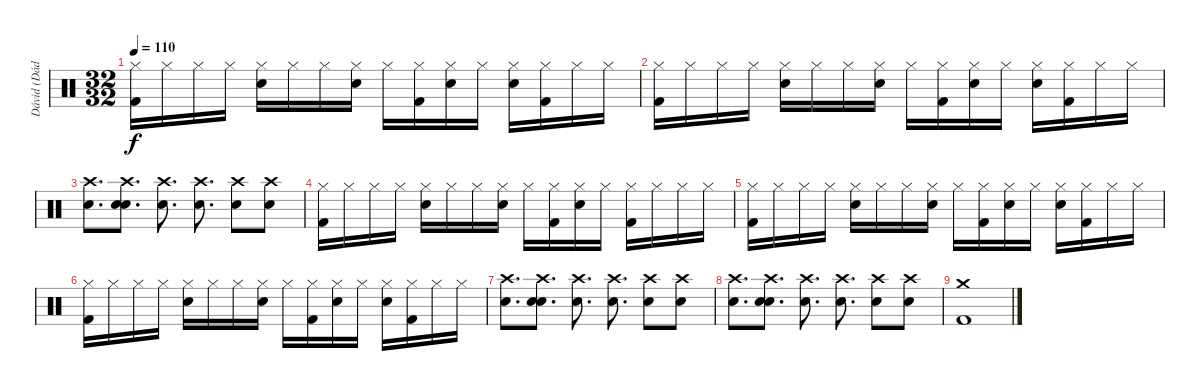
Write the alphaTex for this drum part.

\track ("Dávid (Dádi)" "Dávid (Dád") {instrument percussion}
\staff {score}
\articulation defaults
\ts (32 32)
\tempo 110
\clef neutral
\ks c
("Hi-Hat (closed)" "Kick (hit) 2").16{dy f} "Hi-Hat (closed)".16 "Hi-Hat (closed)".16 "Hi-Hat (closed)".16 ("Hi-Hat (closed)" "Electric Snare (hit)").16 "Hi-Hat (closed)".16 "Hi-Hat (closed)".16 ("Hi-Hat (closed)" "Electric Snare (hit)").16 "Hi-Hat (closed)".16 ("Hi-Hat (closed)" "Kick (hit) 2").16 ("Hi-Hat (closed)" "Electric Snare (hit)").16 "Hi-Hat (closed)".16 ("Hi-Hat (closed)" "Electric Snare (hit)").16 ("Hi-Hat (closed)" "Kick (hit) 2").16 "Hi-Hat (closed)".16 "Hi-Hat (closed)".16 |
("Hi-Hat (closed)" "Kick (hit) 2").16 "Hi-Hat (closed)".16 "Hi-Hat (closed)".16 "Hi-Hat (closed)".16 ("Hi-Hat (closed)" "Electric Snare (hit)").16 "Hi-Hat (closed)".16 "Hi-Hat (closed)".16 ("Hi-Hat (closed)" "Electric Snare (hit)").16 "Hi-Hat (closed)".16 ("Hi-Hat (closed)" "Kick (hit) 2").16 ("Hi-Hat (closed)" "Electric Snare (hit)").16 "Hi-Hat (closed)".16 ("Hi-Hat (closed)" "Electric Snare (hit)").16 ("Hi-Hat (closed)" "Kick (hit) 2").16 "Hi-Hat (closed)".16 "Hi-Hat (closed)".16 |
("Crash high (hit)" "Electric Snare (hit)").8{d} ("Crash high (hit)" "Electric Snare (hit)" "Electric Snare (hit)").8{d} ("Crash high (hit)" "Electric Snare (hit)").8{d} ("Crash high (hit)" "Electric Snare (hit)").8{d} ("Snare (hit) 2" "Crash high (hit)").8 ("Snare (hit) 2" "Crash high (hit)").8 |
("Hi-Hat (closed)" "Kick (hit) 2").16 "Hi-Hat (closed)".16 "Hi-Hat (closed)".16 "Hi-Hat (closed)".16 ("Hi-Hat (closed)" "Electric Snare (hit)").16 "Hi-Hat (closed)".16 "Hi-Hat (closed)".16 ("Hi-Hat (closed)" "Electric Snare (hit)").16 "Hi-Hat (closed)".16 ("Hi-Hat (closed)" "Kick (hit) 2").16 ("Hi-Hat (closed)" "Electric Snare (hit)").16 "Hi-Hat (closed)".16 ("Hi-Hat (closed)" "Kick (hit) 2").16 "Hi-Hat (closed)".16 "Hi-Hat (closed)".16 "Hi-Hat (closed)".16 |
("Hi-Hat (closed)" "Kick (hit) 2").16 "Hi-Hat (closed)".16 "Hi-Hat (closed)".16 "Hi-Hat (closed)".16 ("Hi-Hat (closed)" "Electric Snare (hit)").16 "Hi-Hat (closed)".16 "Hi-Hat (closed)".16 ("Hi-Hat (closed)" "Electric Snare (hit)").16 "Hi-Hat (closed)".16 ("Hi-Hat (closed)" "Kick (hit) 2").16 ("Hi-Hat (closed)" "Electric Snare (hit)").16 "Hi-Hat (closed)".16 ("Hi-Hat (closed)" "Electric Snare (hit)").16 ("Hi-Hat (closed)" "Kick (hit) 2").16 "Hi-Hat (closed)".16 "Hi-Hat (closed)".16 |
("Hi-Hat (closed)" "Kick (hit) 2").16 "Hi-Hat (closed)".16 "Hi-Hat (closed)".16 "Hi-Hat (closed)".16 ("Hi-Hat (closed)" "Electric Snare (hit)").16 "Hi-Hat (closed)".16 "Hi-Hat (closed)".16 ("Hi-Hat (closed)" "Electric Snare (hit)").16 "Hi-Hat (closed)".16 ("Hi-Hat (closed)" "Kick (hit) 2").16 ("Hi-Hat (closed)" "Electric Snare (hit)").16 "Hi-Hat (closed)".16 ("Hi-Hat (closed)" "Electric Snare (hit)").16 ("Hi-Hat (closed)" "Kick (hit) 2").16 "Hi-Hat (closed)".16 "Hi-Hat (closed)".16 |
("Crash high (hit)" "Electric Snare (hit)").8{d} ("Crash high (hit)" "Electric Snare (hit)" "Electric Snare (hit)").8{d} ("Crash high (hit)" "Electric Snare (hit)").8{d} ("Crash high (hit)" "Electric Snare (hit)").8{d} ("Snare (hit) 2" "Crash high (hit)").8 ("Snare (hit) 2" "Crash high (hit)").8 |
("Crash high (hit)" "Electric Snare (hit)").8{d} ("Crash high (hit)" "Electric Snare (hit)" "Electric Snare (hit)").8{d} ("Crash high (hit)" "Electric Snare (hit)").8{d} ("Crash high (hit)" "Electric Snare (hit)").8{d} ("Snare (hit) 2" "Crash high (hit)").8 ("Snare (hit) 2" "Crash high (hit)").8 |
("Kick (hit) 2" "Crash medium (hit)").1
